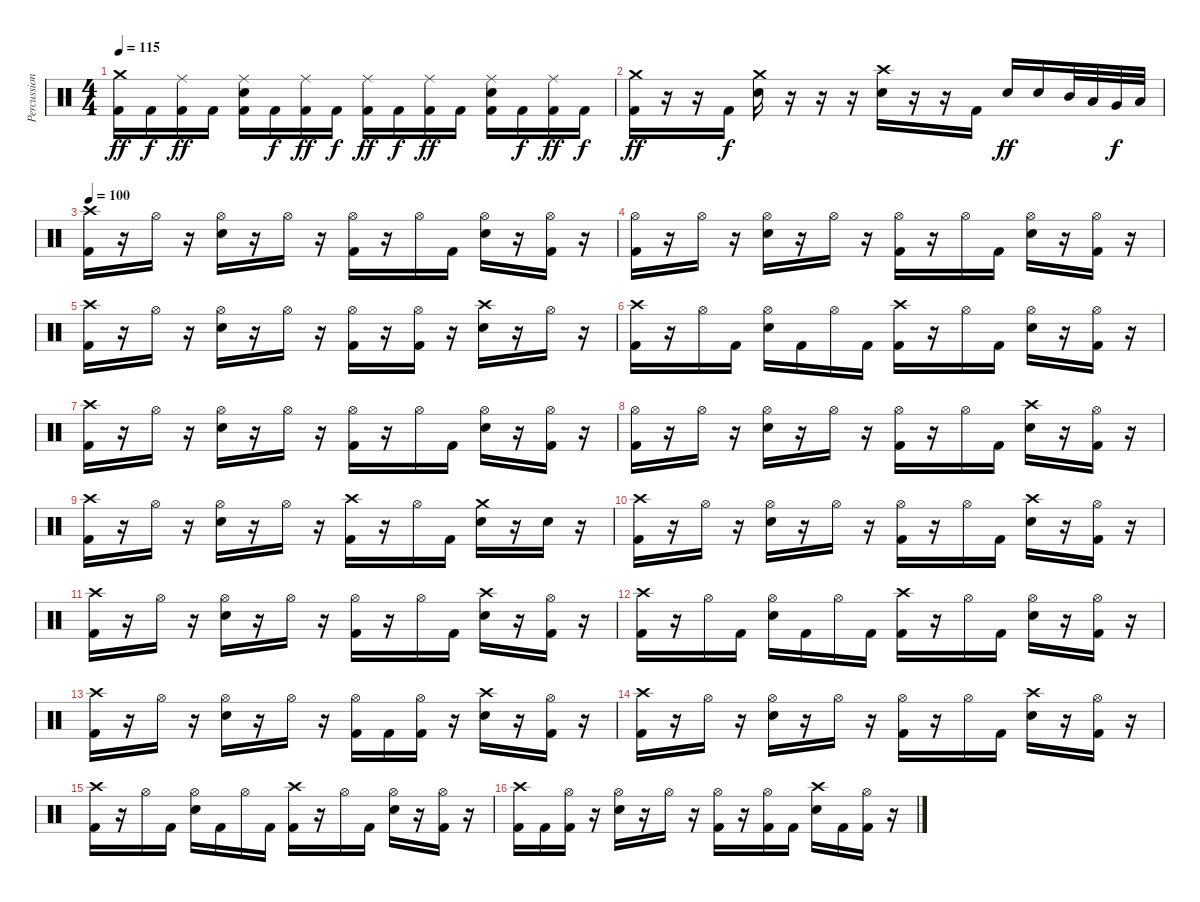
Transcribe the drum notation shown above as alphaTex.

\track ("Percussion" "Percussion") {instrument percussion}
\staff {score}
\articulation defaults
\ts (4 4)
\tempo 115
\clef neutral
\ks c
("Crash medium (hit)" "Kick (hit) 2").16{dy ff} "Kick (hit) 2".16{dy f} ("Ride (middle)" "Kick (hit) 2").16{dy ff} "Kick (hit) 2".16 ("Ride (middle)" "Snare (hit) 2" "Kick (hit) 2").16 "Kick (hit) 2".16{dy f} ("Ride (middle)" "Kick (hit) 2").16{dy ff} "Kick (hit) 2".16{dy f} ("Ride (middle)" "Kick (hit) 2").16{dy ff} "Kick (hit) 2".16{dy f} ("Ride (middle)" "Kick (hit) 2").16{dy ff} "Kick (hit) 2".16 ("Ride (middle)" "Snare (hit) 2" "Kick (hit) 2").16 "Kick (hit) 2".16{dy f} ("Ride (middle)" "Kick (hit) 2").16{dy ff} "Kick (hit) 2".16{dy f} |
("Crash medium (hit)" "Kick (hit) 2").16{dy ff} r.16 r.16 "Kick (hit) 2".16{dy f} ("Crash medium (hit)" "Snare (hit) 2").16 r.16 r.16 r.16 ("Crash high (hit)" "Snare (hit) 2").16 r.16 r.16 "Kick (hit) 2".16 "Snare (hit) 2".16{dy ff} "Snare (hit) 2".16 "Mid Tom (hit)".32 "Low Tom (hit)".32 "Very Low Tom (hit)".32{dy f} "Low Floor Tom (hit)".32 |
\tempo 100
("Crash high (hit)" "Kick (hit) 2").16 r.16 "Hi-Hat (open)".16 r.16 ("Hi-Hat (open)" "Snare (hit) 2").16 r.16 "Hi-Hat (open)".16 r.16 ("Hi-Hat (open)" "Kick (hit) 2").16 r.16 "Hi-Hat (open)".16 "Kick (hit) 2".16 ("Hi-Hat (open)" "Snare (hit) 2").16 r.16 ("Hi-Hat (open)" "Kick (hit) 2").16 r.16 |
("Hi-Hat (open)" "Kick (hit) 2").16 r.16 "Hi-Hat (open)".16 r.16 ("Hi-Hat (open)" "Snare (hit) 2").16 r.16 "Hi-Hat (open)".16 r.16 ("Hi-Hat (open)" "Kick (hit) 2").16 r.16 "Hi-Hat (open)".16 "Kick (hit) 2".16 ("Hi-Hat (open)" "Snare (hit) 2").16 r.16 ("Hi-Hat (open)" "Kick (hit) 2").16 r.16 |
("Crash high (hit)" "Kick (hit) 2").16 r.16 "Hi-Hat (open)".16 r.16 ("Hi-Hat (open)" "Snare (hit) 2").16 r.16 "Hi-Hat (open)".16 r.16 ("Hi-Hat (open)" "Kick (hit) 2").16 r.16 ("Hi-Hat (open)" "Kick (hit) 2").16 r.16 ("Crash high (hit)" "Snare (hit) 2").16 r.16 "Hi-Hat (open)".16 r.16 |
("Crash high (hit)" "Kick (hit) 2").16 r.16 "Hi-Hat (open)".16 "Kick (hit) 2".16 ("Hi-Hat (open)" "Snare (hit) 2").16 "Kick (hit) 2".16 "Hi-Hat (open)".16 "Kick (hit) 2".16 ("Crash high (hit)" "Kick (hit) 2").16 r.16 "Hi-Hat (open)".16 "Kick (hit) 2".16 ("Hi-Hat (open)" "Snare (hit) 2").16 r.16 ("Hi-Hat (open)" "Kick (hit) 2").16 r.16 |
("Crash high (hit)" "Kick (hit) 2").16 r.16 "Hi-Hat (open)".16 r.16 ("Hi-Hat (open)" "Snare (hit) 2").16 r.16 "Hi-Hat (open)".16 r.16 ("Hi-Hat (open)" "Kick (hit) 2").16 r.16 "Hi-Hat (open)".16 "Kick (hit) 2".16 ("Hi-Hat (open)" "Snare (hit) 2").16 r.16 ("Hi-Hat (open)" "Kick (hit) 2").16 r.16 |
("Hi-Hat (open)" "Kick (hit) 2").16 r.16 "Hi-Hat (open)".16 r.16 ("Hi-Hat (open)" "Snare (hit) 2").16 r.16 "Hi-Hat (open)".16 r.16 ("Hi-Hat (open)" "Kick (hit) 2").16 r.16 "Hi-Hat (open)".16 "Kick (hit) 2".16 ("Crash high (hit)" "Snare (hit) 2").16 r.16 ("Hi-Hat (open)" "Kick (hit) 2").16 r.16 |
("Crash high (hit)" "Kick (hit) 2").16 r.16 "Hi-Hat (open)".16 r.16 ("Hi-Hat (open)" "Snare (hit) 2").16 r.16 "Hi-Hat (open)".16 r.16 ("Crash high (hit)" "Kick (hit) 2").16 r.16 "Hi-Hat (open)".16 "Kick (hit) 2".16 ("Crash medium (hit)" "Snare (hit) 2").16 r.16 "Snare (hit) 2".16 r.16 |
("Crash high (hit)" "Kick (hit) 2").16 r.16 "Hi-Hat (open)".16 r.16 ("Hi-Hat (open)" "Snare (hit) 2").16 r.16 "Hi-Hat (open)".16 r.16 ("Hi-Hat (open)" "Kick (hit) 2").16 r.16 "Hi-Hat (open)".16 "Kick (hit) 2".16 ("Crash high (hit)" "Snare (hit) 2").16 r.16 ("Hi-Hat (open)" "Kick (hit) 2").16 r.16 |
("Crash high (hit)" "Kick (hit) 2").16 r.16 "Hi-Hat (open)".16 r.16 ("Hi-Hat (open)" "Snare (hit) 2").16 r.16 "Hi-Hat (open)".16 r.16 ("Hi-Hat (open)" "Kick (hit) 2").16 r.16 "Hi-Hat (open)".16 "Kick (hit) 2".16 ("Crash high (hit)" "Snare (hit) 2").16 r.16 ("Hi-Hat (open)" "Kick (hit) 2").16 r.16 |
("Crash high (hit)" "Kick (hit) 2").16 r.16 "Hi-Hat (open)".16 "Kick (hit) 2".16 ("Hi-Hat (open)" "Snare (hit) 2").16 "Kick (hit) 2".16 "Hi-Hat (open)".16 "Kick (hit) 2".16 ("Crash high (hit)" "Kick (hit) 2").16 r.16 "Hi-Hat (open)".16 "Kick (hit) 2".16 ("Hi-Hat (open)" "Snare (hit) 2").16 r.16 ("Hi-Hat (open)" "Kick (hit) 2").16 r.16 |
("Crash high (hit)" "Kick (hit) 2").16 r.16 "Hi-Hat (open)".16 r.16 ("Hi-Hat (open)" "Snare (hit) 2").16 r.16 "Hi-Hat (open)".16 r.16 ("Hi-Hat (open)" "Kick (hit) 2").16 "Kick (hit) 2".16 ("Hi-Hat (open)" "Kick (hit) 2").16 r.16 ("Crash high (hit)" "Snare (hit) 2").16 r.16 ("Hi-Hat (open)" "Kick (hit) 2").16 r.16 |
("Crash high (hit)" "Kick (hit) 2").16 r.16 "Hi-Hat (open)".16 r.16 ("Hi-Hat (open)" "Snare (hit) 2").16 r.16 "Hi-Hat (open)".16 r.16 ("Hi-Hat (open)" "Kick (hit) 2").16 r.16 "Hi-Hat (open)".16 "Kick (hit) 2".16 ("Crash high (hit)" "Snare (hit) 2").16 r.16 ("Hi-Hat (open)" "Kick (hit) 2").16 r.16 |
("Crash high (hit)" "Kick (hit) 2").16 r.16 "Hi-Hat (open)".16 "Kick (hit) 2".16 ("Hi-Hat (open)" "Snare (hit) 2").16 "Kick (hit) 2".16 "Hi-Hat (open)".16 "Kick (hit) 2".16 ("Crash high (hit)" "Kick (hit) 2").16 r.16 "Hi-Hat (open)".16 "Kick (hit) 2".16 ("Hi-Hat (open)" "Snare (hit) 2").16 r.16 ("Hi-Hat (open)" "Kick (hit) 2").16 r.16 |
("Crash high (hit)" "Kick (hit) 2").16 "Kick (hit) 2".16 ("Hi-Hat (open)" "Kick (hit) 2").16 r.16 ("Hi-Hat (open)" "Snare (hit) 2").16 r.16 "Hi-Hat (open)".16 r.16 ("Hi-Hat (open)" "Kick (hit) 2").16 r.16 ("Hi-Hat (open)" "Kick (hit) 2").16 "Kick (hit) 2".16 ("Crash high (hit)" "Snare (hit) 2").16 "Kick (hit) 2".16 ("Hi-Hat (open)" "Kick (hit) 2").16 r.16
